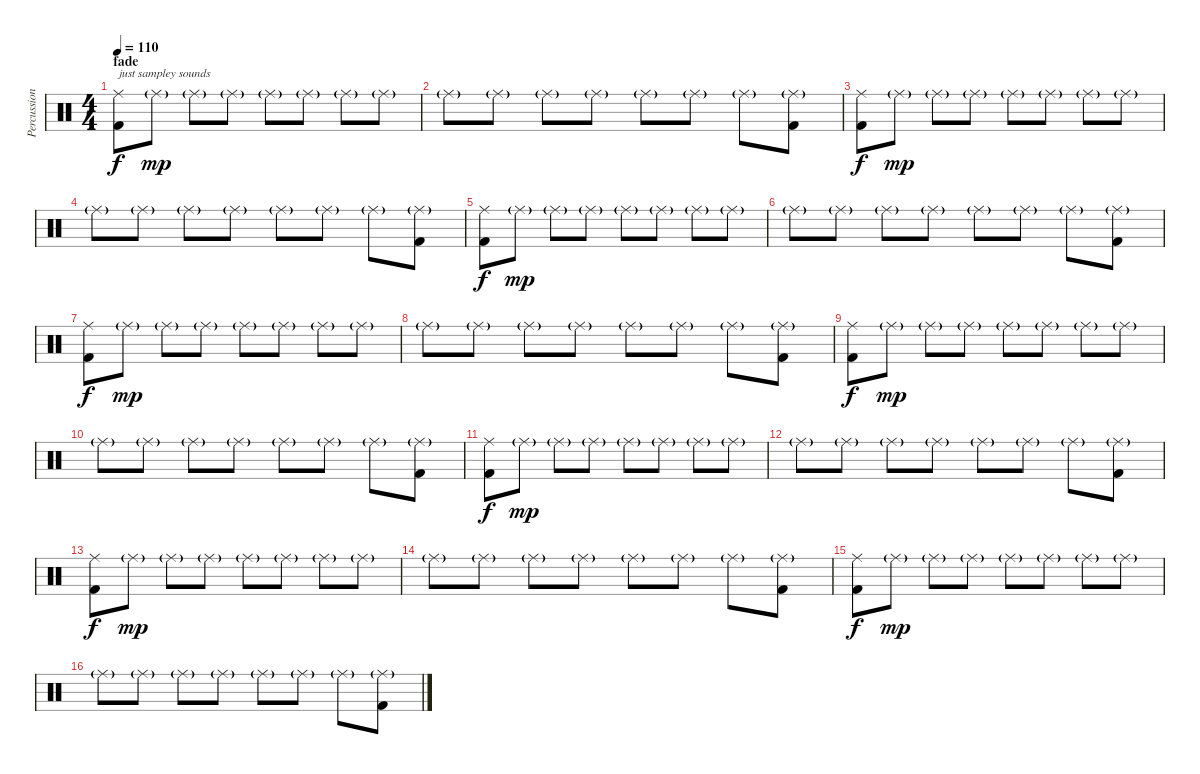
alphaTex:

\track ("Percussion" "Percussion") {instrument percussion}
\staff {score}
\articulation defaults
\ts (4 4)
\section ("" "fade")
\tempo 110
\clef neutral
\ks c
("Ride (middle)" "Kick (hit) 2").8{txt "just sampley sounds" dy f volume 12} "Ride (middle)"{g}.8{dy mp} "Ride (middle)"{g}.8 "Ride (middle)"{g}.8 "Ride (middle)"{g}.8 "Ride (middle)"{g}.8 "Ride (middle)"{g}.8 "Ride (middle)"{g}.8 |
"Ride (middle)"{g}.8 "Ride (middle)"{g}.8 "Ride (middle)"{g}.8 "Ride (middle)"{g}.8 "Ride (middle)"{g}.8 "Ride (middle)"{g}.8 "Ride (middle)"{g}.8 ("Ride (middle)"{g} "Kick (hit) 2").8 |
("Ride (middle)" "Kick (hit) 2").8{dy f} "Ride (middle)"{g}.8{dy mp} "Ride (middle)"{g}.8 "Ride (middle)"{g}.8 "Ride (middle)"{g}.8 "Ride (middle)"{g}.8 "Ride (middle)"{g}.8 "Ride (middle)"{g}.8 |
"Ride (middle)"{g}.8 "Ride (middle)"{g}.8 "Ride (middle)"{g}.8 "Ride (middle)"{g}.8 "Ride (middle)"{g}.8 "Ride (middle)"{g}.8 "Ride (middle)"{g}.8 ("Ride (middle)"{g} "Kick (hit) 2").8 |
("Ride (middle)" "Kick (hit) 2").8{dy f volume 8} "Ride (middle)"{g}.8{dy mp} "Ride (middle)"{g}.8 "Ride (middle)"{g}.8 "Ride (middle)"{g}.8 "Ride (middle)"{g}.8 "Ride (middle)"{g}.8 "Ride (middle)"{g}.8 |
"Ride (middle)"{g}.8 "Ride (middle)"{g}.8 "Ride (middle)"{g}.8 "Ride (middle)"{g}.8 "Ride (middle)"{g}.8 "Ride (middle)"{g}.8 "Ride (middle)"{g}.8 ("Ride (middle)"{g} "Kick (hit) 2").8 |
("Ride (middle)" "Kick (hit) 2").8{dy f} "Ride (middle)"{g}.8{dy mp} "Ride (middle)"{g}.8 "Ride (middle)"{g}.8 "Ride (middle)"{g}.8 "Ride (middle)"{g}.8 "Ride (middle)"{g}.8 "Ride (middle)"{g}.8 |
"Ride (middle)"{g}.8 "Ride (middle)"{g}.8 "Ride (middle)"{g}.8 "Ride (middle)"{g}.8 "Ride (middle)"{g}.8 "Ride (middle)"{g}.8 "Ride (middle)"{g}.8 ("Ride (middle)"{g} "Kick (hit) 2").8 |
("Ride (middle)" "Kick (hit) 2").8{dy f volume 4} "Ride (middle)"{g}.8{dy mp} "Ride (middle)"{g}.8 "Ride (middle)"{g}.8 "Ride (middle)"{g}.8 "Ride (middle)"{g}.8 "Ride (middle)"{g}.8 "Ride (middle)"{g}.8 |
"Ride (middle)"{g}.8 "Ride (middle)"{g}.8 "Ride (middle)"{g}.8 "Ride (middle)"{g}.8 "Ride (middle)"{g}.8 "Ride (middle)"{g}.8 "Ride (middle)"{g}.8 ("Ride (middle)"{g} "Kick (hit) 2").8 |
("Ride (middle)" "Kick (hit) 2").8{dy f} "Ride (middle)"{g}.8{dy mp} "Ride (middle)"{g}.8 "Ride (middle)"{g}.8 "Ride (middle)"{g}.8 "Ride (middle)"{g}.8 "Ride (middle)"{g}.8 "Ride (middle)"{g}.8 |
"Ride (middle)"{g}.8 "Ride (middle)"{g}.8 "Ride (middle)"{g}.8 "Ride (middle)"{g}.8 "Ride (middle)"{g}.8 "Ride (middle)"{g}.8 "Ride (middle)"{g}.8 ("Ride (middle)"{g} "Kick (hit) 2").8 |
("Ride (middle)" "Kick (hit) 2").8{dy f volume 0} "Ride (middle)"{g}.8{dy mp} "Ride (middle)"{g}.8 "Ride (middle)"{g}.8 "Ride (middle)"{g}.8 "Ride (middle)"{g}.8 "Ride (middle)"{g}.8 "Ride (middle)"{g}.8 |
"Ride (middle)"{g}.8 "Ride (middle)"{g}.8 "Ride (middle)"{g}.8 "Ride (middle)"{g}.8 "Ride (middle)"{g}.8 "Ride (middle)"{g}.8 "Ride (middle)"{g}.8 ("Ride (middle)"{g} "Kick (hit) 2").8 |
("Ride (middle)" "Kick (hit) 2").8{dy f} "Ride (middle)"{g}.8{dy mp} "Ride (middle)"{g}.8 "Ride (middle)"{g}.8 "Ride (middle)"{g}.8 "Ride (middle)"{g}.8 "Ride (middle)"{g}.8 "Ride (middle)"{g}.8 |
"Ride (middle)"{g}.8 "Ride (middle)"{g}.8 "Ride (middle)"{g}.8 "Ride (middle)"{g}.8 "Ride (middle)"{g}.8 "Ride (middle)"{g}.8 "Ride (middle)"{g}.8 ("Ride (middle)"{g} "Kick (hit) 2").8
